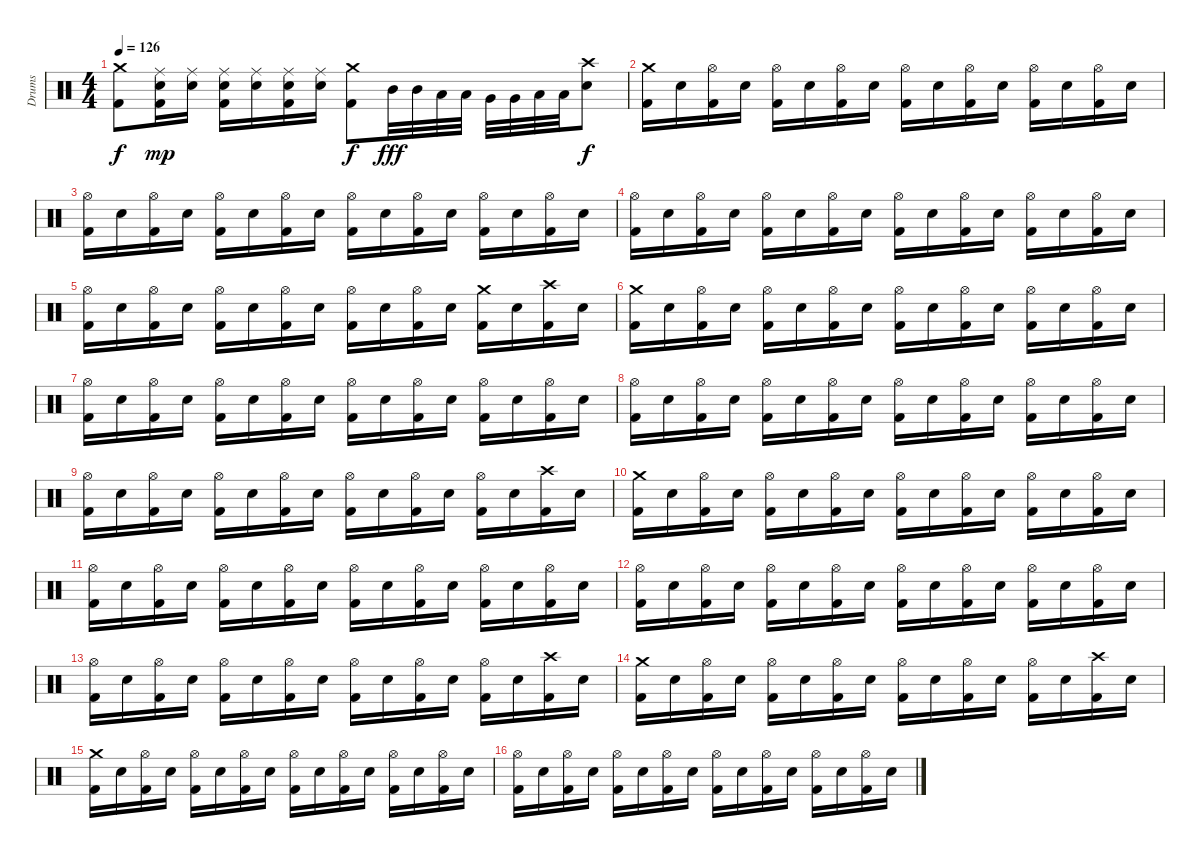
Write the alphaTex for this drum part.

\track ("Drums" "Drums") {instrument percussion}
\staff {score}
\articulation defaults
\ts (4 4)
\tempo 126
\clef neutral
\ks c
("Kick (hit) 2" "Crash medium (hit)").8{dy f} ("Kick (hit) 2" "Electric Snare (hit)" "Ride (middle)").16{dy mp} ("Electric Snare (hit)" "Ride (middle)").16 ("Kick (hit) 2" "Electric Snare (hit)" "Ride (middle)").16 ("Electric Snare (hit)" "Ride (middle)").16 ("Kick (hit) 2" "Electric Snare (hit)" "Ride (middle)").16 ("Electric Snare (hit)" "Ride (middle)").16 ("Kick (hit) 2" "Crash medium (hit)").8{dy f} "Mid Tom (hit)".32{dy fff} "Mid Tom (hit)".32 "Low Tom (hit)".32 "Low Tom (hit)".32 "Very Low Tom (hit)".32 "Very Low Tom (hit)".32 "Low Floor Tom (hit)".32 "Low Floor Tom (hit)".32 ("Electric Snare (hit)" "Crash high (hit)").8{dy f} |
("Kick (hit) 2" "Crash medium (hit)").16 "Electric Snare (hit)".16 ("Kick (hit) 2" "Hi-Hat (open)").16 "Electric Snare (hit)".16 ("Kick (hit) 2" "Hi-Hat (open)").16 "Electric Snare (hit)".16 ("Kick (hit) 2" "Hi-Hat (open)").16 "Electric Snare (hit)".16 ("Kick (hit) 2" "Hi-Hat (open)").16 "Electric Snare (hit)".16 ("Kick (hit) 2" "Hi-Hat (open)").16 "Electric Snare (hit)".16 ("Kick (hit) 2" "Hi-Hat (open)").16 "Electric Snare (hit)".16 ("Kick (hit) 2" "Hi-Hat (open)").16 "Electric Snare (hit)".16 |
("Kick (hit) 2" "Hi-Hat (open)").16 "Electric Snare (hit)".16 ("Kick (hit) 2" "Hi-Hat (open)").16 "Electric Snare (hit)".16 ("Kick (hit) 2" "Hi-Hat (open)").16 "Electric Snare (hit)".16 ("Kick (hit) 2" "Hi-Hat (open)").16 "Electric Snare (hit)".16 ("Kick (hit) 2" "Hi-Hat (open)").16 "Electric Snare (hit)".16 ("Kick (hit) 2" "Hi-Hat (open)").16 "Electric Snare (hit)".16 ("Kick (hit) 2" "Hi-Hat (open)").16 "Electric Snare (hit)".16 ("Kick (hit) 2" "Hi-Hat (open)").16 "Electric Snare (hit)".16 |
("Kick (hit) 2" "Hi-Hat (open)").16 "Electric Snare (hit)".16 ("Kick (hit) 2" "Hi-Hat (open)").16 "Electric Snare (hit)".16 ("Kick (hit) 2" "Hi-Hat (open)").16 "Electric Snare (hit)".16 ("Kick (hit) 2" "Hi-Hat (open)").16 "Electric Snare (hit)".16 ("Kick (hit) 2" "Hi-Hat (open)").16 "Electric Snare (hit)".16 ("Kick (hit) 2" "Hi-Hat (open)").16 "Electric Snare (hit)".16 ("Kick (hit) 2" "Hi-Hat (open)").16 "Electric Snare (hit)".16 ("Kick (hit) 2" "Hi-Hat (open)").16 "Electric Snare (hit)".16 |
("Kick (hit) 2" "Hi-Hat (open)").16 "Electric Snare (hit)".16 ("Kick (hit) 2" "Hi-Hat (open)").16 "Electric Snare (hit)".16 ("Kick (hit) 2" "Hi-Hat (open)").16 "Electric Snare (hit)".16 ("Kick (hit) 2" "Hi-Hat (open)").16 "Electric Snare (hit)".16 ("Kick (hit) 2" "Hi-Hat (open)").16 "Electric Snare (hit)".16 ("Kick (hit) 2" "Hi-Hat (open)").16 "Electric Snare (hit)".16 ("Kick (hit) 2" "Crash medium (hit)").16 "Electric Snare (hit)".16 ("Kick (hit) 2" "Crash high (hit)").16 "Electric Snare (hit)".16 |
("Kick (hit) 2" "Crash medium (hit)").16 "Electric Snare (hit)".16 ("Kick (hit) 2" "Hi-Hat (open)").16 "Electric Snare (hit)".16 ("Kick (hit) 2" "Hi-Hat (open)").16 "Electric Snare (hit)".16 ("Kick (hit) 2" "Hi-Hat (open)").16 "Electric Snare (hit)".16 ("Kick (hit) 2" "Hi-Hat (open)").16 "Electric Snare (hit)".16 ("Kick (hit) 2" "Hi-Hat (open)").16 "Electric Snare (hit)".16 ("Kick (hit) 2" "Hi-Hat (open)").16 "Electric Snare (hit)".16 ("Kick (hit) 2" "Hi-Hat (open)").16 "Electric Snare (hit)".16 |
("Kick (hit) 2" "Hi-Hat (open)").16 "Electric Snare (hit)".16 ("Kick (hit) 2" "Hi-Hat (open)").16 "Electric Snare (hit)".16 ("Kick (hit) 2" "Hi-Hat (open)").16 "Electric Snare (hit)".16 ("Kick (hit) 2" "Hi-Hat (open)").16 "Electric Snare (hit)".16 ("Kick (hit) 2" "Hi-Hat (open)").16 "Electric Snare (hit)".16 ("Kick (hit) 2" "Hi-Hat (open)").16 "Electric Snare (hit)".16 ("Kick (hit) 2" "Hi-Hat (open)").16 "Electric Snare (hit)".16 ("Kick (hit) 2" "Hi-Hat (open)").16 "Electric Snare (hit)".16 |
("Kick (hit) 2" "Hi-Hat (open)").16 "Electric Snare (hit)".16 ("Kick (hit) 2" "Hi-Hat (open)").16 "Electric Snare (hit)".16 ("Kick (hit) 2" "Hi-Hat (open)").16 "Electric Snare (hit)".16 ("Kick (hit) 2" "Hi-Hat (open)").16 "Electric Snare (hit)".16 ("Kick (hit) 2" "Hi-Hat (open)").16 "Electric Snare (hit)".16 ("Kick (hit) 2" "Hi-Hat (open)").16 "Electric Snare (hit)".16 ("Kick (hit) 2" "Hi-Hat (open)").16 "Electric Snare (hit)".16 ("Kick (hit) 2" "Hi-Hat (open)").16 "Electric Snare (hit)".16 |
("Kick (hit) 2" "Hi-Hat (open)").16 "Electric Snare (hit)".16 ("Kick (hit) 2" "Hi-Hat (open)").16 "Electric Snare (hit)".16 ("Kick (hit) 2" "Hi-Hat (open)").16 "Electric Snare (hit)".16 ("Kick (hit) 2" "Hi-Hat (open)").16 "Electric Snare (hit)".16 ("Kick (hit) 2" "Hi-Hat (open)").16 "Electric Snare (hit)".16 ("Kick (hit) 2" "Hi-Hat (open)").16 "Electric Snare (hit)".16 ("Kick (hit) 2" "Hi-Hat (open)").16 "Electric Snare (hit)".16 ("Kick (hit) 2" "Crash high (hit)").16 "Electric Snare (hit)".16 |
("Kick (hit) 2" "Crash medium (hit)").16 "Electric Snare (hit)".16 ("Kick (hit) 2" "Hi-Hat (open)").16 "Electric Snare (hit)".16 ("Kick (hit) 2" "Hi-Hat (open)").16 "Electric Snare (hit)".16 ("Kick (hit) 2" "Hi-Hat (open)").16 "Electric Snare (hit)".16 ("Kick (hit) 2" "Hi-Hat (open)").16 "Electric Snare (hit)".16 ("Kick (hit) 2" "Hi-Hat (open)").16 "Electric Snare (hit)".16 ("Kick (hit) 2" "Hi-Hat (open)").16 "Electric Snare (hit)".16 ("Kick (hit) 2" "Hi-Hat (open)").16 "Electric Snare (hit)".16 |
("Kick (hit) 2" "Hi-Hat (open)").16 "Electric Snare (hit)".16 ("Kick (hit) 2" "Hi-Hat (open)").16 "Electric Snare (hit)".16 ("Kick (hit) 2" "Hi-Hat (open)").16 "Electric Snare (hit)".16 ("Kick (hit) 2" "Hi-Hat (open)").16 "Electric Snare (hit)".16 ("Kick (hit) 2" "Hi-Hat (open)").16 "Electric Snare (hit)".16 ("Kick (hit) 2" "Hi-Hat (open)").16 "Electric Snare (hit)".16 ("Kick (hit) 2" "Hi-Hat (open)").16 "Electric Snare (hit)".16 ("Kick (hit) 2" "Hi-Hat (open)").16 "Electric Snare (hit)".16 |
("Kick (hit) 2" "Hi-Hat (open)").16 "Electric Snare (hit)".16 ("Kick (hit) 2" "Hi-Hat (open)").16 "Electric Snare (hit)".16 ("Kick (hit) 2" "Hi-Hat (open)").16 "Electric Snare (hit)".16 ("Kick (hit) 2" "Hi-Hat (open)").16 "Electric Snare (hit)".16 ("Kick (hit) 2" "Hi-Hat (open)").16 "Electric Snare (hit)".16 ("Kick (hit) 2" "Hi-Hat (open)").16 "Electric Snare (hit)".16 ("Kick (hit) 2" "Hi-Hat (open)").16 "Electric Snare (hit)".16 ("Kick (hit) 2" "Hi-Hat (open)").16 "Electric Snare (hit)".16 |
("Kick (hit) 2" "Hi-Hat (open)").16 "Electric Snare (hit)".16 ("Kick (hit) 2" "Hi-Hat (open)").16 "Electric Snare (hit)".16 ("Kick (hit) 2" "Hi-Hat (open)").16 "Electric Snare (hit)".16 ("Kick (hit) 2" "Hi-Hat (open)").16 "Electric Snare (hit)".16 ("Kick (hit) 2" "Hi-Hat (open)").16 "Electric Snare (hit)".16 ("Kick (hit) 2" "Hi-Hat (open)").16 "Electric Snare (hit)".16 ("Kick (hit) 2" "Hi-Hat (open)").16 "Electric Snare (hit)".16 ("Kick (hit) 2" "Crash high (hit)").16 "Electric Snare (hit)".16 |
("Kick (hit) 2" "Crash medium (hit)").16 "Electric Snare (hit)".16 ("Kick (hit) 2" "Hi-Hat (open)").16 "Electric Snare (hit)".16 ("Kick (hit) 2" "Hi-Hat (open)").16 "Electric Snare (hit)".16 ("Kick (hit) 2" "Hi-Hat (open)").16 "Electric Snare (hit)".16 ("Kick (hit) 2" "Hi-Hat (open)").16 "Electric Snare (hit)".16 ("Kick (hit) 2" "Hi-Hat (open)").16 "Electric Snare (hit)".16 ("Kick (hit) 2" "Hi-Hat (open)").16 "Electric Snare (hit)".16 ("Kick (hit) 2" "Crash high (hit)").16 "Electric Snare (hit)".16 |
("Kick (hit) 2" "Crash medium (hit)").16 "Electric Snare (hit)".16 ("Kick (hit) 2" "Hi-Hat (open)").16 "Electric Snare (hit)".16 ("Kick (hit) 2" "Hi-Hat (open)").16 "Electric Snare (hit)".16 ("Kick (hit) 2" "Hi-Hat (open)").16 "Electric Snare (hit)".16 ("Kick (hit) 2" "Hi-Hat (open)").16 "Electric Snare (hit)".16 ("Kick (hit) 2" "Hi-Hat (open)").16 "Electric Snare (hit)".16 ("Kick (hit) 2" "Hi-Hat (open)").16 "Electric Snare (hit)".16 ("Kick (hit) 2" "Hi-Hat (open)").16 "Electric Snare (hit)".16 |
("Kick (hit) 2" "Hi-Hat (open)").16 "Electric Snare (hit)".16 ("Kick (hit) 2" "Hi-Hat (open)").16 "Electric Snare (hit)".16 ("Kick (hit) 2" "Hi-Hat (open)").16 "Electric Snare (hit)".16 ("Kick (hit) 2" "Hi-Hat (open)").16 "Electric Snare (hit)".16 ("Kick (hit) 2" "Hi-Hat (open)").16 "Electric Snare (hit)".16 ("Kick (hit) 2" "Hi-Hat (open)").16 "Electric Snare (hit)".16 ("Kick (hit) 2" "Hi-Hat (open)").16 "Electric Snare (hit)".16 ("Kick (hit) 2" "Hi-Hat (open)").16 "Electric Snare (hit)".16
